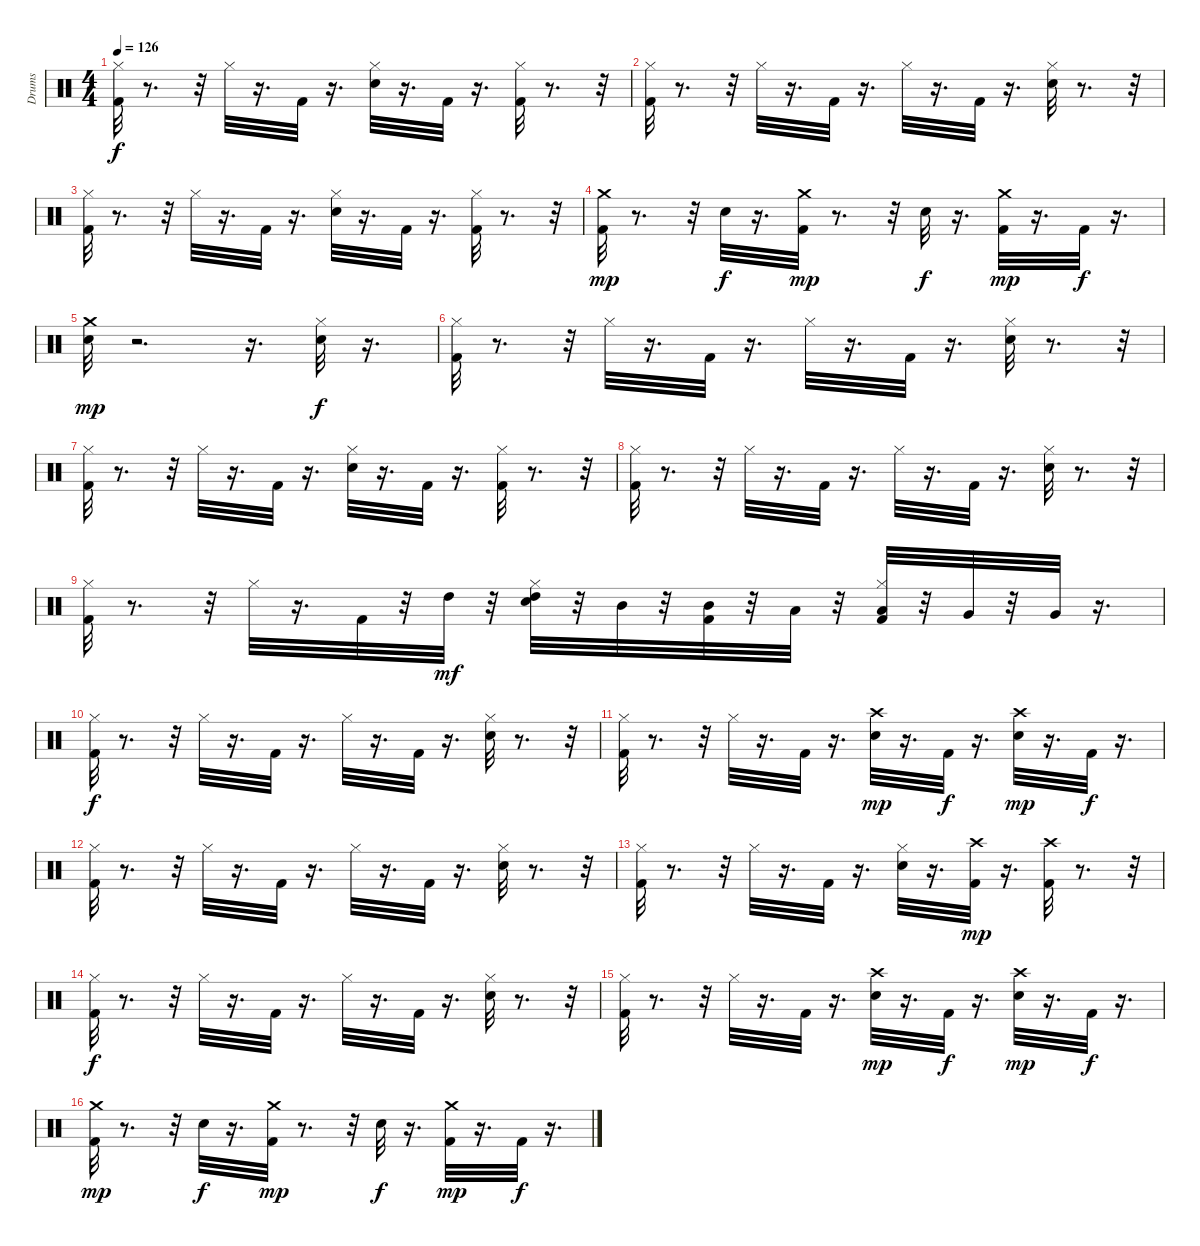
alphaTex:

\track ("Drums" "Drums") {instrument percussion}
\staff {score}
\articulation defaults
\ts (4 4)
\tempo 126
\clef neutral
\ks c
("Kick (hit) 2" "Hi-Hat (closed)").32{dy f} r.8{d} r.32 "Hi-Hat (closed)".32 r.16{d} "Kick (hit) 2".32 r.16{d} ("Snare (hit) 2" "Hi-Hat (closed)").32 r.16{d} "Kick (hit) 2".32 r.16{d} ("Kick (hit) 2" "Hi-Hat (closed)").32 r.8{d} r.32 |
("Kick (hit) 2" "Hi-Hat (closed)").32 r.8{d} r.32 "Hi-Hat (closed)".32 r.16{d} "Kick (hit) 2".32 r.16{d} "Hi-Hat (closed)".32 r.16{d} "Kick (hit) 2".32 r.16{d} ("Snare (hit) 2" "Hi-Hat (closed)").32 r.8{d} r.32 |
("Kick (hit) 2" "Hi-Hat (closed)").32 r.8{d} r.32 "Hi-Hat (closed)".32 r.16{d} "Kick (hit) 2".32 r.16{d} ("Snare (hit) 2" "Hi-Hat (closed)").32 r.16{d} "Kick (hit) 2".32 r.16{d} ("Kick (hit) 2" "Hi-Hat (closed)").32 r.8{d} r.32 |
("Kick (hit) 2" "Crash medium (hit)").32{dy mp} r.8{d} r.32 "Snare (hit) 2".32{dy f} r.16{d} ("Kick (hit) 2" "Crash medium (hit)").32{dy mp} r.8{d} r.32 "Snare (hit) 2".32{dy f} r.16{d} ("Kick (hit) 2" "Crash medium (hit)").32{dy mp} r.16{d} "Kick (hit) 2".32{dy f} r.16{d} |
("Snare (hit) 2" "Crash medium (hit)").32{dy mp} r.2{d} r.16{d} ("Snare (hit) 2" "Hi-Hat (closed)").32{dy f} r.16{d} |
("Kick (hit) 2" "Hi-Hat (closed)").32 r.8{d} r.32 "Hi-Hat (closed)".32 r.16{d} "Kick (hit) 2".32 r.16{d} "Hi-Hat (closed)".32 r.16{d} "Kick (hit) 2".32 r.16{d} ("Snare (hit) 2" "Hi-Hat (closed)").32 r.8{d} r.32 |
("Kick (hit) 2" "Hi-Hat (closed)").32 r.8{d} r.32 "Hi-Hat (closed)".32 r.16{d} "Kick (hit) 2".32 r.16{d} ("Snare (hit) 2" "Hi-Hat (closed)").32 r.16{d} "Kick (hit) 2".32 r.16{d} ("Kick (hit) 2" "Hi-Hat (closed)").32 r.8{d} r.32 |
("Kick (hit) 2" "Hi-Hat (closed)").32 r.8{d} r.32 "Hi-Hat (closed)".32 r.16{d} "Kick (hit) 2".32 r.16{d} "Hi-Hat (closed)".32 r.16{d} "Kick (hit) 2".32 r.16{d} ("Snare (hit) 2" "Hi-Hat (closed)").32 r.8{d} r.32 |
("Kick (hit) 2" "Hi-Hat (closed)").32 r.8{d} r.32 "Hi-Hat (closed)".32 r.16{d} "Kick (hit) 2".32 r.32 "High Tom (hit)".32{dy mf} r.32 ("Snare (hit) 2" "Hi-Hat (closed)" "High Tom (hit)").32 r.32 "Mid Tom (hit)".32 r.32 ("Kick (hit) 2" "Mid Tom (hit)").32 r.32 "Low Tom (hit)".32 r.32 ("Kick (hit) 2" "Hi-Hat (closed)" "Low Tom (hit)").32 r.32 "Very Low Tom (hit)".32 r.32 "Very Low Tom (hit)".32 r.16{d} |
("Kick (hit) 2" "Hi-Hat (closed)").32{dy f} r.8{d} r.32 "Hi-Hat (closed)".32 r.16{d} "Kick (hit) 2".32 r.16{d} "Hi-Hat (closed)".32 r.16{d} "Kick (hit) 2".32 r.16{d} ("Snare (hit) 2" "Hi-Hat (closed)").32 r.8{d} r.32 |
("Kick (hit) 2" "Hi-Hat (closed)").32 r.8{d} r.32 "Hi-Hat (closed)".32 r.16{d} "Kick (hit) 2".32 r.16{d} ("Snare (hit) 2" "Crash high (hit)").32{dy mp} r.16{d} "Kick (hit) 2".32{dy f} r.16{d} ("Snare (hit) 2" "Crash high (hit)").32{dy mp} r.16{d} "Kick (hit) 2".32{dy f} r.16{d} |
("Kick (hit) 2" "Hi-Hat (closed)").32 r.8{d} r.32 "Hi-Hat (closed)".32 r.16{d} "Kick (hit) 2".32 r.16{d} "Hi-Hat (closed)".32 r.16{d} "Kick (hit) 2".32 r.16{d} ("Snare (hit) 2" "Hi-Hat (closed)").32 r.8{d} r.32 |
("Kick (hit) 2" "Hi-Hat (closed)").32 r.8{d} r.32 "Hi-Hat (closed)".32 r.16{d} "Kick (hit) 2".32 r.16{d} ("Snare (hit) 2" "Hi-Hat (closed)").32 r.16{d} ("Kick (hit) 2" "Crash high (hit)").32{dy mp} r.16{d} ("Kick (hit) 2" "Crash high (hit)").32 r.8{d} r.32 |
("Kick (hit) 2" "Hi-Hat (closed)").32{dy f} r.8{d} r.32 "Hi-Hat (closed)".32 r.16{d} "Kick (hit) 2".32 r.16{d} "Hi-Hat (closed)".32 r.16{d} "Kick (hit) 2".32 r.16{d} ("Snare (hit) 2" "Hi-Hat (closed)").32 r.8{d} r.32 |
("Kick (hit) 2" "Hi-Hat (closed)").32 r.8{d} r.32 "Hi-Hat (closed)".32 r.16{d} "Kick (hit) 2".32 r.16{d} ("Snare (hit) 2" "Crash high (hit)").32{dy mp} r.16{d} "Kick (hit) 2".32{dy f} r.16{d} ("Snare (hit) 2" "Crash high (hit)").32{dy mp} r.16{d} "Kick (hit) 2".32{dy f} r.16{d} |
("Kick (hit) 2" "Crash medium (hit)").32{dy mp} r.8{d} r.32 "Snare (hit) 2".32{dy f} r.16{d} ("Kick (hit) 2" "Crash medium (hit)").32{dy mp} r.8{d} r.32 "Snare (hit) 2".32{dy f} r.16{d} ("Kick (hit) 2" "Crash medium (hit)").32{dy mp} r.16{d} "Kick (hit) 2".32{dy f} r.16{d}
